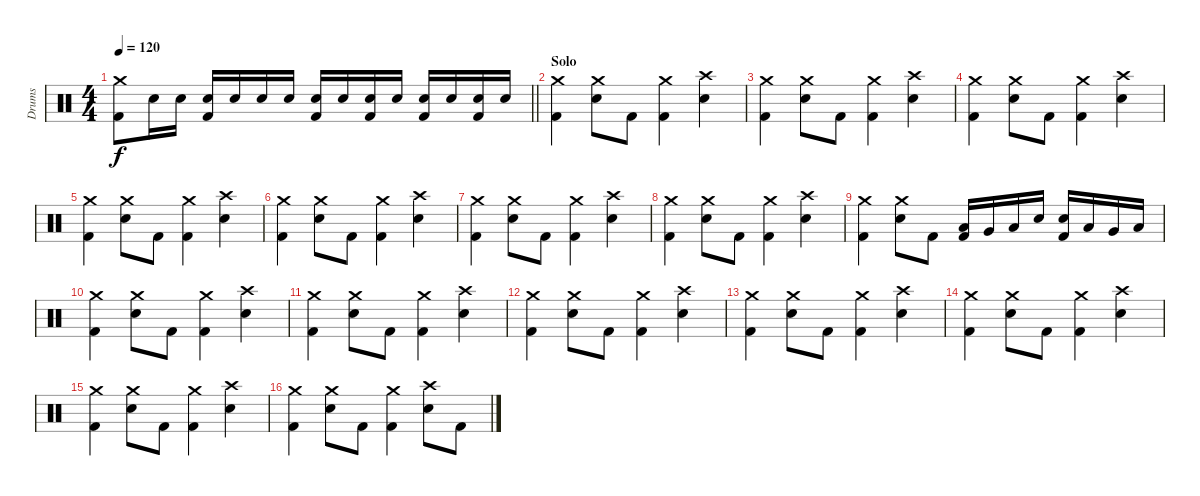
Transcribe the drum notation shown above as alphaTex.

\track ("Drums" "Drums") {instrument percussion}
\staff {score}
\articulation defaults
\ts (4 4)
\tempo 120
\clef neutral
\barLineRight lightlight
\ks c
("Crash medium (hit)" "Kick (hit) 2").8{dy f} "Electric Snare (hit)".16 "Electric Snare (hit)".16 ("Electric Snare (hit)" "Kick (hit) 2").16 "Electric Snare (hit)".16 "Electric Snare (hit)".16 "Electric Snare (hit)".16 ("Electric Snare (hit)" "Kick (hit) 2").16 "Electric Snare (hit)".16 ("Electric Snare (hit)" "Kick (hit) 2").16 "Electric Snare (hit)".16 ("Electric Snare (hit)" "Kick (hit) 2").16 "Electric Snare (hit)".16 ("Electric Snare (hit)" "Kick (hit) 2").16 "Electric Snare (hit)".16 |
\section ("" "Solo")
("Crash medium (hit)" "Kick (hit) 2").4 ("Crash medium (hit)" "Electric Snare (hit)").8 "Kick (hit) 2".8 ("Crash medium (hit)" "Kick (hit) 2").4 ("Crash high (hit)" "Electric Snare (hit)").4 |
("Crash medium (hit)" "Kick (hit) 2").4 ("Crash medium (hit)" "Electric Snare (hit)").8 "Kick (hit) 2".8 ("Crash medium (hit)" "Kick (hit) 2").4 ("Crash high (hit)" "Electric Snare (hit)").4 |
("Crash medium (hit)" "Kick (hit) 2").4 ("Crash medium (hit)" "Electric Snare (hit)").8 "Kick (hit) 2".8 ("Crash medium (hit)" "Kick (hit) 2").4 ("Crash high (hit)" "Electric Snare (hit)").4 |
("Crash medium (hit)" "Kick (hit) 2").4 ("Crash medium (hit)" "Electric Snare (hit)").8 "Kick (hit) 2".8 ("Crash medium (hit)" "Kick (hit) 2").4 ("Crash high (hit)" "Electric Snare (hit)").4 |
("Crash medium (hit)" "Kick (hit) 2").4 ("Crash medium (hit)" "Electric Snare (hit)").8 "Kick (hit) 2".8 ("Crash medium (hit)" "Kick (hit) 2").4 ("Crash high (hit)" "Electric Snare (hit)").4 |
("Crash medium (hit)" "Kick (hit) 2").4 ("Crash medium (hit)" "Electric Snare (hit)").8 "Kick (hit) 2".8 ("Crash medium (hit)" "Kick (hit) 2").4 ("Crash high (hit)" "Electric Snare (hit)").4 |
("Crash medium (hit)" "Kick (hit) 2").4 ("Crash medium (hit)" "Electric Snare (hit)").8 "Kick (hit) 2".8 ("Crash medium (hit)" "Kick (hit) 2").4 ("Crash high (hit)" "Electric Snare (hit)").4 |
("Crash medium (hit)" "Kick (hit) 2").4 ("Crash medium (hit)" "Electric Snare (hit)").8 "Kick (hit) 2".8 ("Low Tom (hit)" "Kick (hit) 2").16 "Very Low Tom (hit)".16 "Low Floor Tom (hit)".16 "Electric Snare (hit)".16 ("Electric Snare (hit)" "Kick (hit) 2").16 "Low Tom (hit)".16 "Very Low Tom (hit)".16 "Low Floor Tom (hit)".16 |
("Crash medium (hit)" "Kick (hit) 2").4 ("Crash medium (hit)" "Electric Snare (hit)").8 "Kick (hit) 2".8 ("Crash medium (hit)" "Kick (hit) 2").4 ("Crash high (hit)" "Electric Snare (hit)").4 |
("Crash medium (hit)" "Kick (hit) 2").4 ("Crash medium (hit)" "Electric Snare (hit)").8 "Kick (hit) 2".8 ("Crash medium (hit)" "Kick (hit) 2").4 ("Crash high (hit)" "Electric Snare (hit)").4 |
("Crash medium (hit)" "Kick (hit) 2").4 ("Crash medium (hit)" "Electric Snare (hit)").8 "Kick (hit) 2".8 ("Crash medium (hit)" "Kick (hit) 2").4 ("Crash high (hit)" "Electric Snare (hit)").4 |
("Crash medium (hit)" "Kick (hit) 2").4 ("Crash medium (hit)" "Electric Snare (hit)").8 "Kick (hit) 2".8 ("Crash medium (hit)" "Kick (hit) 2").4 ("Crash high (hit)" "Electric Snare (hit)").4 |
("Crash medium (hit)" "Kick (hit) 2").4 ("Crash medium (hit)" "Electric Snare (hit)").8 "Kick (hit) 2".8 ("Crash medium (hit)" "Kick (hit) 2").4 ("Crash high (hit)" "Electric Snare (hit)").4 |
("Crash medium (hit)" "Kick (hit) 2").4 ("Crash medium (hit)" "Electric Snare (hit)").8 "Kick (hit) 2".8 ("Crash medium (hit)" "Kick (hit) 2").4 ("Crash high (hit)" "Electric Snare (hit)").4 |
("Crash medium (hit)" "Kick (hit) 2").4 ("Crash medium (hit)" "Electric Snare (hit)").8 "Kick (hit) 2".8 ("Crash medium (hit)" "Kick (hit) 2").4 ("Crash high (hit)" "Electric Snare (hit)").8 "Kick (hit) 2".8
